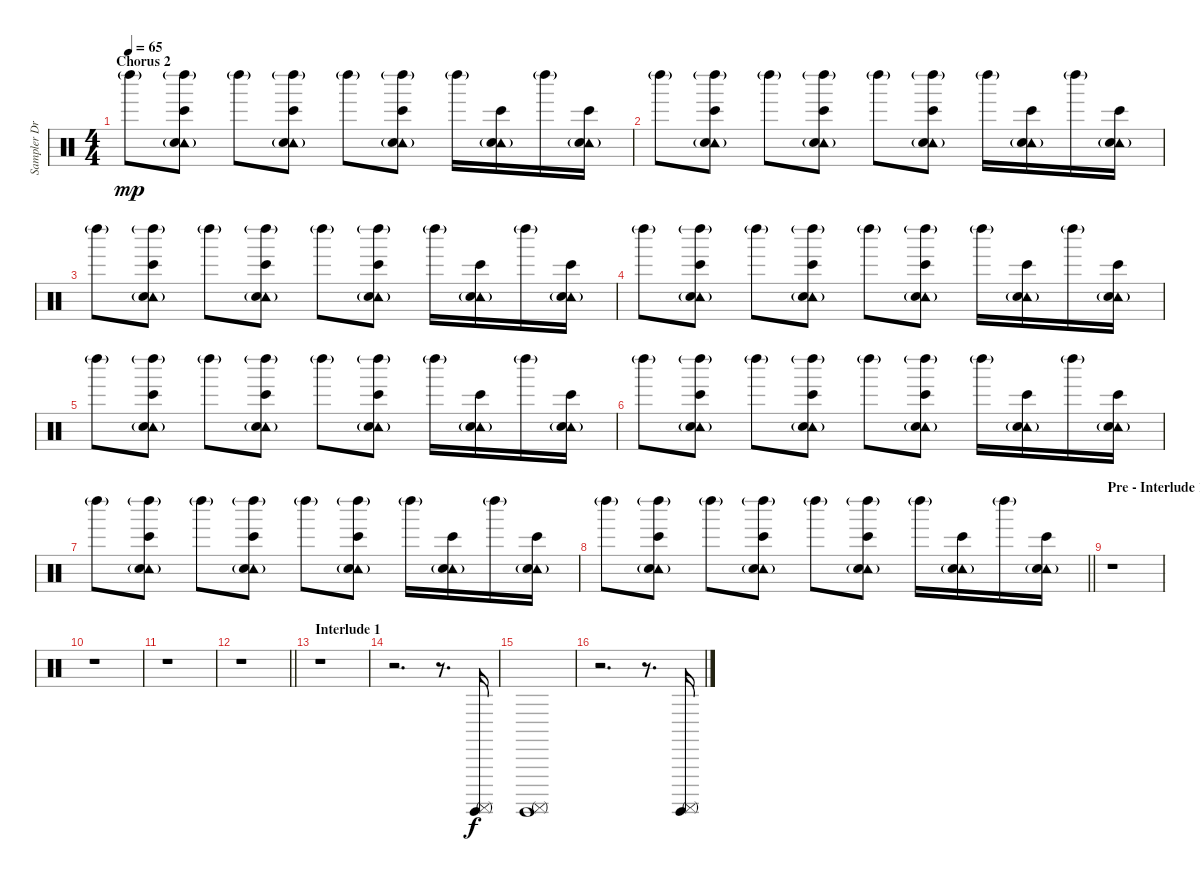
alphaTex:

\track ("Sampler Drums" "Sampler Dr") {instrument percussion}
\staff {score}
\articulation defaults
\ts (4 4)
\section ("" "Chorus 2")
\tempo 65
\clef neutral
\ks c "Left Maraca (hit)"{g}.8{dy mp}
("Tambourine (hit)" "Bongo High (hit)" "Left Maraca (hit)"{g} "Hand Clap (hit)"{g}).8 "Left Maraca (hit)"{g}.8 ("Tambourine (hit)" "Bongo High (hit)" "Left Maraca (hit)"{g} "Hand Clap (hit)"{g}).8 "Left Maraca (hit)"{g}.8 ("Tambourine (hit)" "Bongo High (hit)" "Left Maraca (hit)"{g} "Hand Clap (hit)"{g}).8 "Left Maraca (hit)"{g}.16 ("Tambourine (hit)" "Bongo High (hit)" "Hand Clap (hit)"{g}).16 "Left Maraca (hit)"{g}.16 ("Tambourine (hit)" "Bongo High (hit)" "Hand Clap (hit)"{g}).16 |
"Left Maraca (hit)"{g}.8 ("Tambourine (hit)" "Bongo High (hit)" "Left Maraca (hit)"{g} "Hand Clap (hit)"{g}).8 "Left Maraca (hit)"{g}.8 ("Tambourine (hit)" "Bongo High (hit)" "Left Maraca (hit)"{g} "Hand Clap (hit)"{g}).8 "Left Maraca (hit)"{g}.8 ("Tambourine (hit)" "Bongo High (hit)" "Left Maraca (hit)"{g} "Hand Clap (hit)"{g}).8 "Left Maraca (hit)"{g}.16 ("Tambourine (hit)" "Bongo High (hit)" "Hand Clap (hit)"{g}).16 "Left Maraca (hit)"{g}.16 ("Tambourine (hit)" "Bongo High (hit)" "Hand Clap (hit)"{g}).16 |
"Left Maraca (hit)"{g}.8 ("Tambourine (hit)" "Bongo High (hit)" "Left Maraca (hit)"{g} "Hand Clap (hit)"{g}).8 "Left Maraca (hit)"{g}.8 ("Tambourine (hit)" "Bongo High (hit)" "Left Maraca (hit)"{g} "Hand Clap (hit)"{g}).8 "Left Maraca (hit)"{g}.8 ("Tambourine (hit)" "Bongo High (hit)" "Left Maraca (hit)"{g} "Hand Clap (hit)"{g}).8 "Left Maraca (hit)"{g}.16 ("Tambourine (hit)" "Bongo High (hit)" "Hand Clap (hit)"{g}).16 "Left Maraca (hit)"{g}.16 ("Tambourine (hit)" "Bongo High (hit)" "Hand Clap (hit)"{g}).16 |
"Left Maraca (hit)"{g}.8 ("Tambourine (hit)" "Bongo High (hit)" "Left Maraca (hit)"{g} "Hand Clap (hit)"{g}).8 "Left Maraca (hit)"{g}.8 ("Tambourine (hit)" "Bongo High (hit)" "Left Maraca (hit)"{g} "Hand Clap (hit)"{g}).8 "Left Maraca (hit)"{g}.8 ("Tambourine (hit)" "Bongo High (hit)" "Left Maraca (hit)"{g} "Hand Clap (hit)"{g}).8 "Left Maraca (hit)"{g}.16 ("Tambourine (hit)" "Bongo High (hit)" "Hand Clap (hit)"{g}).16 "Left Maraca (hit)"{g}.16 ("Tambourine (hit)" "Bongo High (hit)" "Hand Clap (hit)"{g}).16 |
"Left Maraca (hit)"{g}.8 ("Tambourine (hit)" "Bongo High (hit)" "Left Maraca (hit)"{g} "Hand Clap (hit)"{g}).8 "Left Maraca (hit)"{g}.8 ("Tambourine (hit)" "Bongo High (hit)" "Left Maraca (hit)"{g} "Hand Clap (hit)"{g}).8 "Left Maraca (hit)"{g}.8 ("Tambourine (hit)" "Bongo High (hit)" "Left Maraca (hit)"{g} "Hand Clap (hit)"{g}).8 "Left Maraca (hit)"{g}.16 ("Tambourine (hit)" "Bongo High (hit)" "Hand Clap (hit)"{g}).16 "Left Maraca (hit)"{g}.16 ("Tambourine (hit)" "Bongo High (hit)" "Hand Clap (hit)"{g}).16 |
"Left Maraca (hit)"{g}.8 ("Tambourine (hit)" "Bongo High (hit)" "Left Maraca (hit)"{g} "Hand Clap (hit)"{g}).8 "Left Maraca (hit)"{g}.8 ("Tambourine (hit)" "Bongo High (hit)" "Left Maraca (hit)"{g} "Hand Clap (hit)"{g}).8 "Left Maraca (hit)"{g}.8 ("Tambourine (hit)" "Bongo High (hit)" "Left Maraca (hit)"{g} "Hand Clap (hit)"{g}).8 "Left Maraca (hit)"{g}.16 ("Tambourine (hit)" "Bongo High (hit)" "Hand Clap (hit)"{g}).16 "Left Maraca (hit)"{g}.16 ("Tambourine (hit)" "Bongo High (hit)" "Hand Clap (hit)"{g}).16 |
"Left Maraca (hit)"{g}.8 ("Tambourine (hit)" "Bongo High (hit)" "Left Maraca (hit)"{g} "Hand Clap (hit)"{g}).8 "Left Maraca (hit)"{g}.8 ("Tambourine (hit)" "Bongo High (hit)" "Left Maraca (hit)"{g} "Hand Clap (hit)"{g}).8 "Left Maraca (hit)"{g}.8 ("Tambourine (hit)" "Bongo High (hit)" "Left Maraca (hit)"{g} "Hand Clap (hit)"{g}).8 "Left Maraca (hit)"{g}.16 ("Tambourine (hit)" "Bongo High (hit)" "Hand Clap (hit)"{g}).16 "Left Maraca (hit)"{g}.16 ("Tambourine (hit)" "Bongo High (hit)" "Hand Clap (hit)"{g}).16 |
\barLineRight lightlight "Left Maraca (hit)"{g}.8
("Tambourine (hit)" "Bongo High (hit)" "Left Maraca (hit)"{g} "Hand Clap (hit)"{g}).8 "Left Maraca (hit)"{g}.8 ("Tambourine (hit)" "Bongo High (hit)" "Left Maraca (hit)"{g} "Hand Clap (hit)"{g}).8 "Left Maraca (hit)"{g}.8 ("Tambourine (hit)" "Bongo High (hit)" "Left Maraca (hit)"{g} "Hand Clap (hit)"{g}).8 "Left Maraca (hit)"{g}.16 ("Tambourine (hit)" "Bongo High (hit)" "Hand Clap (hit)"{g}).16 "Left Maraca (hit)"{g}.16 ("Tambourine (hit)" "Bongo High (hit)" "Hand Clap (hit)"{g}).16 |
\section ("" "Pre - Interlude 1")
r.1 |
r.1 |
r.1 |
\barLineRight lightlight
r.1 |
\section ("" "Interlude 1")
r.1 |
r.2{d} r.8{d} ("Surdo (mute)" "Surdo (hit)").16{dy f} |
("Surdo (mute)" "Surdo (hit)").1 |
r.2{d} r.8{d} ("Surdo (mute)" "Surdo (hit)").16
